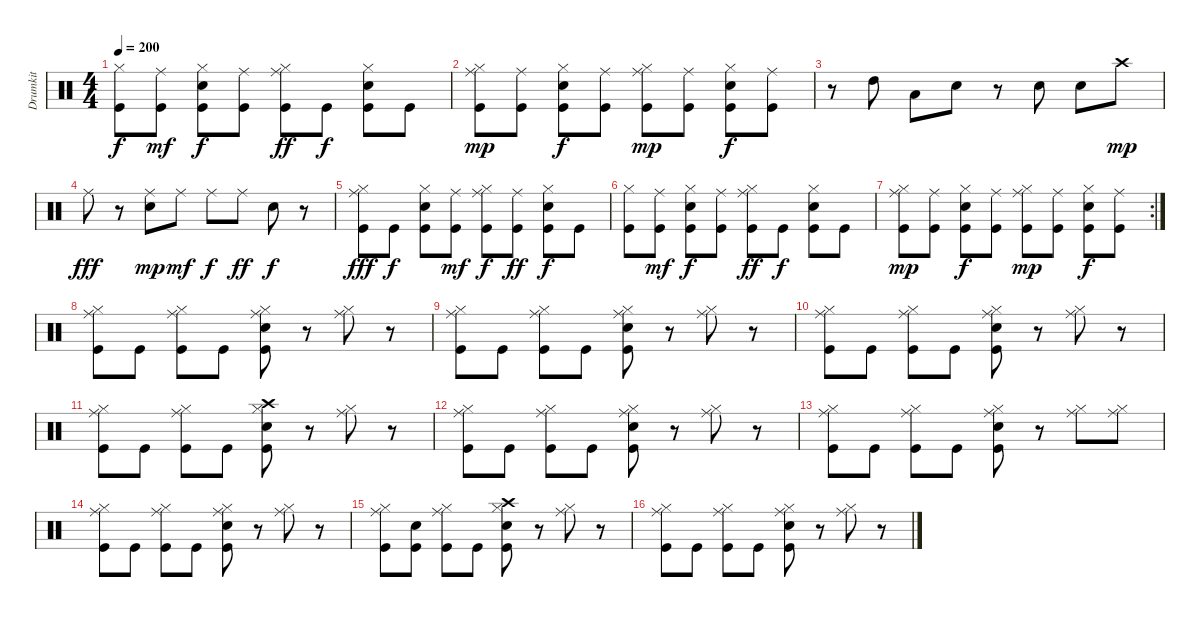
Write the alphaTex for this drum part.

\track ("Drumkit" "Drumkit") {instrument percussion}
\staff {score}
\articulation defaults
\ts (4 4)
\tempo 200
\clef neutral
\ks c
("Hi-Hat (closed)" "Kick (hit)").8{dy f} ("Ride (middle)" "Kick (hit)").8{dy mf} ("Hi-Hat (closed)" "Snare (hit) 2" "Kick (hit)").8{dy f} ("Ride (middle)" "Kick (hit)").8 ("Ride (middle)" "Hi-Hat (closed)" "Kick (hit)").8{dy ff} "Kick (hit)".8{dy f} ("Hi-Hat (closed)" "Snare (hit) 2" "Kick (hit)").8 "Kick (hit)".8 |
("Ride (middle)" "Hi-Hat (closed)" "Kick (hit)").8{dy mp} ("Ride (middle)" "Kick (hit)").8 ("Hi-Hat (closed)" "Snare (hit) 2" "Kick (hit)").8{dy f} ("Ride (middle)" "Kick (hit)").8 ("Ride (middle)" "Hi-Hat (closed)" "Kick (hit)").8{dy mp} ("Ride (middle)" "Kick (hit)").8 ("Hi-Hat (closed)" "Snare (hit) 2" "Kick (hit)").8{dy f} ("Ride (middle)" "Kick (hit)").8 |
r.8 "High Tom (hit)".8 "Low Tom (hit)".8 "Snare (hit) 2".8 r.8 "Snare (hit) 2".8 "Snare (hit) 2".8 "Crash high (hit)".8{dy mp} |
"Ride (middle)".8{dy fff} r.8 ("Ride (middle)" "Snare (hit) 2").8{dy mp} "Ride (middle)".8{dy mf} "Ride (middle)".8{dy f} "Ride (middle)".8{dy ff} "Snare (hit) 2".8{dy f} r.8 |
("Ride (middle)" "Hi-Hat (closed)" "Kick (hit)").8{dy fff} "Kick (hit)".8{dy f} ("Hi-Hat (closed)" "Snare (hit) 2" "Kick (hit)").8 ("Ride (middle)" "Kick (hit)").8{dy mf} ("Ride (middle)" "Hi-Hat (closed)" "Kick (hit)").8{dy f} ("Ride (middle)" "Kick (hit)").8{dy ff} ("Hi-Hat (closed)" "Snare (hit) 2" "Kick (hit)").8{dy f} "Kick (hit)".8 |
("Hi-Hat (closed)" "Kick (hit)").8 ("Ride (middle)" "Kick (hit)").8{dy mf} ("Hi-Hat (closed)" "Snare (hit) 2" "Kick (hit)").8{dy f} ("Ride (middle)" "Kick (hit)").8 ("Ride (middle)" "Hi-Hat (closed)" "Kick (hit)").8{dy ff} "Kick (hit)".8{dy f} ("Hi-Hat (closed)" "Snare (hit) 2" "Kick (hit)").8 "Kick (hit)".8 |
\rc 2
("Ride (middle)" "Hi-Hat (closed)" "Kick (hit)").8{dy mp} ("Ride (middle)" "Kick (hit)").8 ("Hi-Hat (closed)" "Snare (hit) 2" "Kick (hit)").8{dy f} ("Ride (middle)" "Kick (hit)").8 ("Ride (middle)" "Hi-Hat (closed)" "Kick (hit)").8{dy mp} ("Ride (middle)" "Kick (hit)").8 ("Hi-Hat (closed)" "Snare (hit) 2" "Kick (hit)").8{dy f} ("Ride (middle)" "Kick (hit)").8 |
("Ride (middle)" "Hi-Hat (closed)" "Kick (hit)").8 "Kick (hit)".8 ("Ride (middle)" "Hi-Hat (closed)" "Kick (hit)").8 "Kick (hit)".8 ("Ride (middle)" "Snare (hit) 2" "Hi-Hat (closed)" "Kick (hit)").8 r.8 ("Ride (middle)" "Hi-Hat (closed)").8 r.8 |
("Ride (middle)" "Hi-Hat (closed)" "Kick (hit)").8 "Kick (hit)".8 ("Ride (middle)" "Hi-Hat (closed)" "Kick (hit)").8 "Kick (hit)".8 ("Ride (middle)" "Snare (hit) 2" "Hi-Hat (closed)" "Kick (hit)").8 r.8 ("Ride (middle)" "Hi-Hat (closed)").8 r.8 |
("Ride (middle)" "Hi-Hat (closed)" "Kick (hit)").8 "Kick (hit)".8 ("Ride (middle)" "Hi-Hat (closed)" "Kick (hit)").8 "Kick (hit)".8 ("Ride (middle)" "Snare (hit) 2" "Hi-Hat (closed)" "Kick (hit)").8 r.8 ("Ride (middle)" "Hi-Hat (closed)").8 r.8 |
("Ride (middle)" "Hi-Hat (closed)" "Kick (hit)").8 "Kick (hit)".8 ("Ride (middle)" "Hi-Hat (closed)" "Kick (hit)").8 "Kick (hit)".8 ("Crash high (hit)" "Snare (hit) 2" "Hi-Hat (closed)" "Kick (hit)").8 r.8 ("Ride (middle)" "Hi-Hat (closed)").8 r.8 |
("Ride (middle)" "Hi-Hat (closed)" "Kick (hit)").8 "Kick (hit)".8 ("Ride (middle)" "Hi-Hat (closed)" "Kick (hit)").8 "Kick (hit)".8 ("Ride (middle)" "Snare (hit) 2" "Hi-Hat (closed)" "Kick (hit)").8 r.8 ("Ride (middle)" "Hi-Hat (closed)").8 r.8 |
("Ride (middle)" "Hi-Hat (closed)" "Kick (hit)").8 "Kick (hit)".8 ("Ride (middle)" "Hi-Hat (closed)" "Kick (hit)").8 "Kick (hit)".8 ("Ride (middle)" "Snare (hit) 2" "Hi-Hat (closed)" "Kick (hit)").8 r.8 ("Ride (middle)" "Hi-Hat (closed)").8 ("Ride (middle)" "Hi-Hat (closed)").8 |
("Ride (middle)" "Hi-Hat (closed)" "Kick (hit)").8 "Kick (hit)".8 ("Ride (middle)" "Hi-Hat (closed)" "Kick (hit)").8 "Kick (hit)".8 ("Ride (middle)" "Snare (hit) 2" "Hi-Hat (closed)" "Kick (hit)").8 r.8 ("Ride (middle)" "Hi-Hat (closed)").8 r.8 |
("Ride (middle)" "Hi-Hat (closed)" "Kick (hit)").8 ("Snare (hit) 2" "Kick (hit)").8 ("Ride (middle)" "Hi-Hat (closed)" "Kick (hit)").8 "Kick (hit)".8 ("Crash high (hit)" "Snare (hit) 2" "Hi-Hat (closed)" "Kick (hit)").8 r.8 ("Ride (middle)" "Hi-Hat (closed)").8 r.8 |
("Ride (middle)" "Hi-Hat (closed)" "Kick (hit)").8 "Kick (hit)".8 ("Ride (middle)" "Hi-Hat (closed)" "Kick (hit)").8 "Kick (hit)".8 ("Ride (middle)" "Snare (hit) 2" "Hi-Hat (closed)" "Kick (hit)").8 r.8 ("Ride (middle)" "Hi-Hat (closed)").8 r.8
